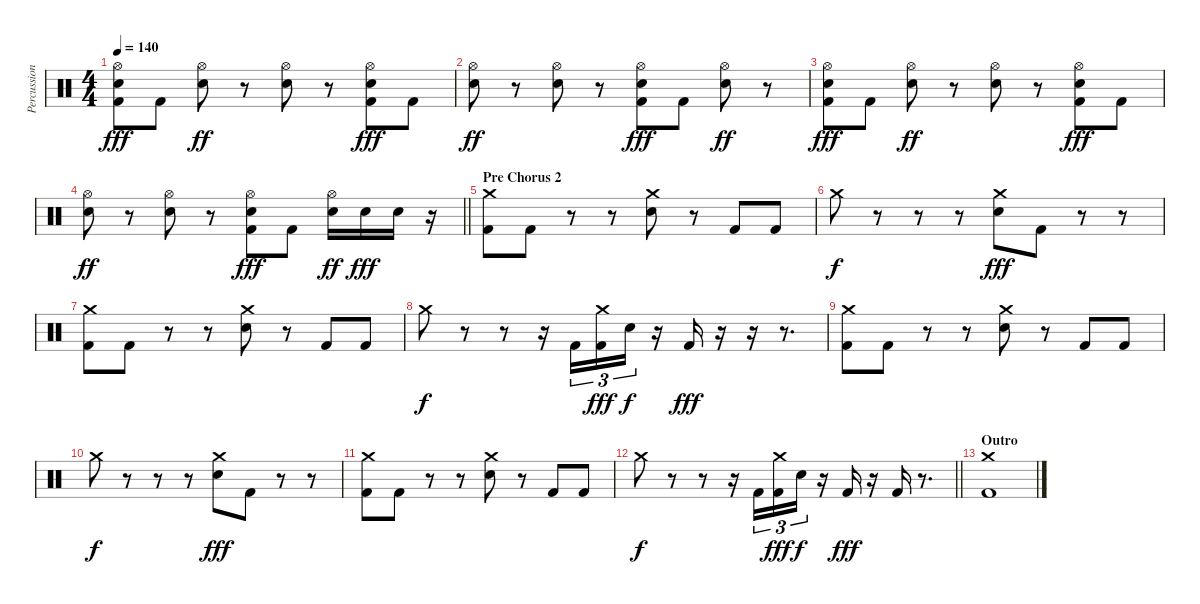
\track ("Percussion" "Percussion") {instrument percussion}
\staff {score}
\articulation defaults
\ts (4 4)
\tempo 140
\clef neutral
\ks c
("Hi-Hat (open)" "Electric Snare (hit)" "Kick (hit) 2").8{dy fff} "Kick (hit) 2".8 ("Hi-Hat (open)" "Electric Snare (hit)").8{dy ff} r.8 ("Hi-Hat (open)" "Electric Snare (hit)").8 r.8 ("Hi-Hat (open)" "Electric Snare (hit)" "Kick (hit) 2").8{dy fff} "Kick (hit) 2".8 |
("Hi-Hat (open)" "Electric Snare (hit)").8{dy ff} r.8 ("Hi-Hat (open)" "Electric Snare (hit)").8 r.8 ("Hi-Hat (open)" "Electric Snare (hit)" "Kick (hit) 2").8{dy fff} "Kick (hit) 2".8 ("Hi-Hat (open)" "Electric Snare (hit)").8{dy ff} r.8 |
("Hi-Hat (open)" "Electric Snare (hit)" "Kick (hit) 2").8{dy fff} "Kick (hit) 2".8 ("Hi-Hat (open)" "Electric Snare (hit)").8{dy ff} r.8 ("Hi-Hat (open)" "Electric Snare (hit)").8 r.8 ("Hi-Hat (open)" "Electric Snare (hit)" "Kick (hit) 2").8{dy fff} "Kick (hit) 2".8 |
\barLineRight lightlight
("Hi-Hat (open)" "Electric Snare (hit)").8{dy ff} r.8 ("Hi-Hat (open)" "Electric Snare (hit)").8 r.8 ("Hi-Hat (open)" "Electric Snare (hit)" "Kick (hit) 2").8{dy fff} "Kick (hit) 2".8 ("Hi-Hat (open)" "Electric Snare (hit)").16{dy ff} "Electric Snare (hit)".16{dy fff} "Electric Snare (hit)".16 r.16 |
\section ("" "Pre Chorus 2")
("Crash medium (hit)" "Kick (hit) 2").8 "Kick (hit) 2".8 r.8 r.8 ("Crash medium (hit)" "Electric Snare (hit)").8 r.8 "Kick (hit) 2".8 "Kick (hit) 2".8 |
"Crash medium (hit)".8{dy f} r.8 r.8 r.8 ("Crash medium (hit)" "Electric Snare (hit)").8{dy fff} "Kick (hit) 2".8 r.8 r.8 |
("Crash medium (hit)" "Kick (hit) 2").8 "Kick (hit) 2".8 r.8 r.8 ("Crash medium (hit)" "Electric Snare (hit)").8 r.8 "Kick (hit) 2".8 "Kick (hit) 2".8 |
"Crash medium (hit)".8{dy f} r.8 r.8 r.16 "Kick (hit) 2".16{tu (3 2)} ("Crash medium (hit)" "Kick (hit) 2").16{tu (3 2) dy fff} "Electric Snare (hit)".16{tu (3 2) dy f} r.16 "Kick (hit) 2".16{dy fff} r.16 r.16 r.8{d} |
("Crash medium (hit)" "Kick (hit) 2").8 "Kick (hit) 2".8 r.8 r.8 ("Crash medium (hit)" "Electric Snare (hit)").8 r.8 "Kick (hit) 2".8 "Kick (hit) 2".8 |
"Crash medium (hit)".8{dy f} r.8 r.8 r.8 ("Crash medium (hit)" "Electric Snare (hit)").8{dy fff} "Kick (hit) 2".8 r.8 r.8 |
("Crash medium (hit)" "Kick (hit) 2").8 "Kick (hit) 2".8 r.8 r.8 ("Crash medium (hit)" "Electric Snare (hit)").8 r.8 "Kick (hit) 2".8 "Kick (hit) 2".8 |
\barLineRight lightlight "Crash medium (hit)".8{dy f}
r.8 r.8 r.16 "Kick (hit) 2".16{tu (3 2)} ("Crash medium (hit)" "Kick (hit) 2").16{tu (3 2) dy fff} "Electric Snare (hit)".16{tu (3 2) dy f} r.16 "Kick (hit) 2".16{dy fff} r.16 "Kick (hit) 2".16 r.8{d} |
\section ("" "Outro")
("Crash medium (hit)" "Kick (hit) 2").1
